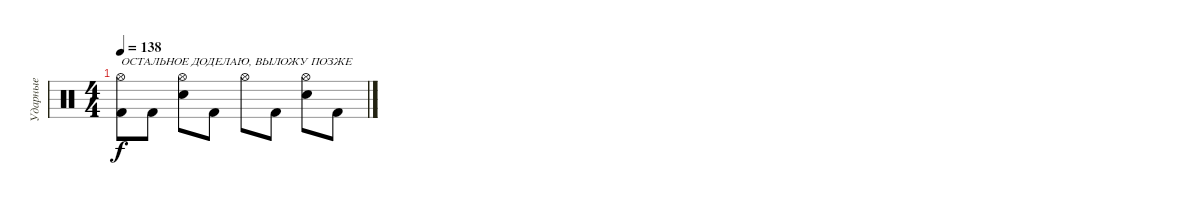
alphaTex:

\track ("Ударные" "Ударные") {instrument percussion}
\staff {score}
\articulation defaults
\ts (4 4)
\tempo 138
\clef neutral
\ks c
("Hi-Hat (open)" "Kick (hit) 2").8{txt "ОСТАЛЬНОЕ ДОДЕЛАЮ, ВЫЛОЖУ ПОЗЖЕ" dy f} "Kick (hit) 2".8 ("Electric Snare (hit)" "Hi-Hat (open)").8 "Kick (hit) 2".8 "Hi-Hat (open)".8 "Kick (hit) 2".8 ("Electric Snare (hit)" "Hi-Hat (open)").8 "Kick (hit) 2".8
